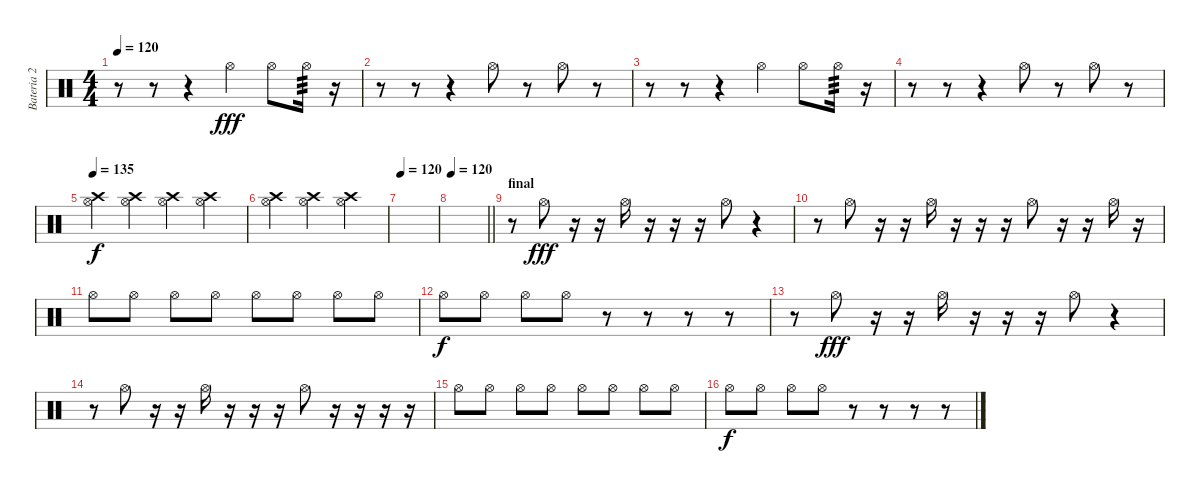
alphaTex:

\track ("Bateria 2" "Bateria 2") {instrument percussion}
\staff {score}
\articulation defaults
\ts (4 4)
\tempo 120
\clef neutral
\ks c
r.8{dy fff} r.8 r.4 "Hi-Hat (open)".4 "Hi-Hat (open)".8 "Hi-Hat (open)".16{tp 3} r.16 |
r.8 r.8 r.4 "Hi-Hat (open)".8 r.8 "Hi-Hat (open)".8 r.8 |
r.8 r.8 r.4 "Hi-Hat (open)".4 "Hi-Hat (open)".8 "Hi-Hat (open)".16{tp 3} r.16 |
r.8 r.8 r.4 "Hi-Hat (open)".8 r.8 "Hi-Hat (open)".8 r.8 |
\tempo 135
("Crash high (hit)" "Hi-Hat (open)").4{dy f} ("Crash high (hit)" "Hi-Hat (open)").4 ("Crash high (hit)" "Hi-Hat (open)").4 ("Crash high (hit)" "Hi-Hat (open)").4 |
("Crash high (hit)" "Hi-Hat (open)").4 ("Crash high (hit)" "Hi-Hat (open)").4 ("Crash high (hit)" "Hi-Hat (open)").4 |
\tempo 120
|
\tempo 120
\barLineRight lightlight
|
\section ("" "final")
r.8 "Hi-Hat (open)".8{dy fff} r.16 r.16 "Hi-Hat (open)".16 r.16 r.16 r.16 "Hi-Hat (open)".8 r.4 |
r.8 "Hi-Hat (open)".8 r.16 r.16 "Hi-Hat (open)".16 r.16 r.16 r.16 "Hi-Hat (open)".8 r.16 r.16 "Hi-Hat (open)".16 r.16 |
"Hi-Hat (open)".8 "Hi-Hat (open)".8 "Hi-Hat (open)".8 "Hi-Hat (open)".8 "Hi-Hat (open)".8 "Hi-Hat (open)".8 "Hi-Hat (open)".8 "Hi-Hat (open)".8 |
"Hi-Hat (open)".8{dy f} "Hi-Hat (open)".8 "Hi-Hat (open)".8 "Hi-Hat (open)".8 r.8 r.8 r.8 r.8 |
r.8 "Hi-Hat (open)".8{dy fff} r.16 r.16 "Hi-Hat (open)".16 r.16 r.16 r.16 "Hi-Hat (open)".8 r.4 |
r.8 "Hi-Hat (open)".8 r.16 r.16 "Hi-Hat (open)".16 r.16 r.16 r.16 "Hi-Hat (open)".8 r.16 r.16 r.16 r.16 |
"Hi-Hat (open)".8 "Hi-Hat (open)".8 "Hi-Hat (open)".8 "Hi-Hat (open)".8 "Hi-Hat (open)".8 "Hi-Hat (open)".8 "Hi-Hat (open)".8 "Hi-Hat (open)".8 |
"Hi-Hat (open)".8{dy f} "Hi-Hat (open)".8 "Hi-Hat (open)".8 "Hi-Hat (open)".8 r.8 r.8 r.8 r.8
